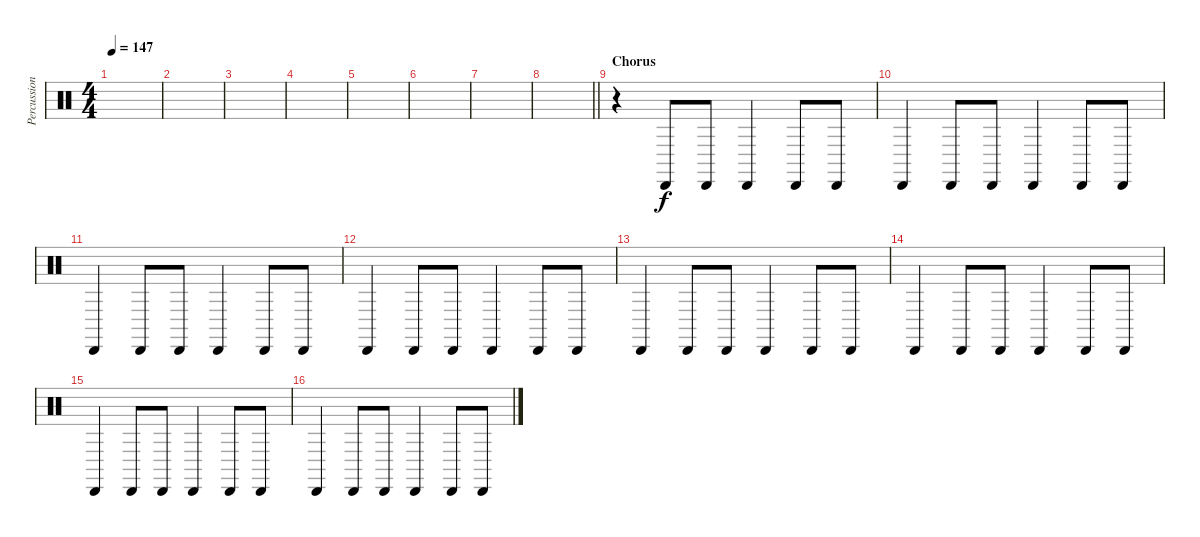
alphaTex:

\track ("Percussion (Matt Laug)" "Percussion") {instrument percussion}
\staff {score}
\articulation defaults
\ts (4 4)
\tempo 147
\clef neutral
\ks c
|
|
|
|
|
|
|
\barLineRight lightlight
|
\section ("" "Chorus")
r.4 "Cabasa (hit)".8 "Cabasa (hit)".8 "Cabasa (hit)".4 "Cabasa (hit)".8 "Cabasa (hit)".8 |
"Cabasa (hit)".4 "Cabasa (hit)".8 "Cabasa (hit)".8 "Cabasa (hit)".4 "Cabasa (hit)".8 "Cabasa (hit)".8 |
"Cabasa (hit)".4 "Cabasa (hit)".8 "Cabasa (hit)".8 "Cabasa (hit)".4 "Cabasa (hit)".8 "Cabasa (hit)".8 |
"Cabasa (hit)".4 "Cabasa (hit)".8 "Cabasa (hit)".8 "Cabasa (hit)".4 "Cabasa (hit)".8 "Cabasa (hit)".8 |
"Cabasa (hit)".4 "Cabasa (hit)".8 "Cabasa (hit)".8 "Cabasa (hit)".4 "Cabasa (hit)".8 "Cabasa (hit)".8 |
"Cabasa (hit)".4 "Cabasa (hit)".8 "Cabasa (hit)".8 "Cabasa (hit)".4 "Cabasa (hit)".8 "Cabasa (hit)".8 |
"Cabasa (hit)".4 "Cabasa (hit)".8 "Cabasa (hit)".8 "Cabasa (hit)".4 "Cabasa (hit)".8 "Cabasa (hit)".8 |
"Cabasa (hit)".4 "Cabasa (hit)".8 "Cabasa (hit)".8 "Cabasa (hit)".4 "Cabasa (hit)".8 "Cabasa (hit)".8
